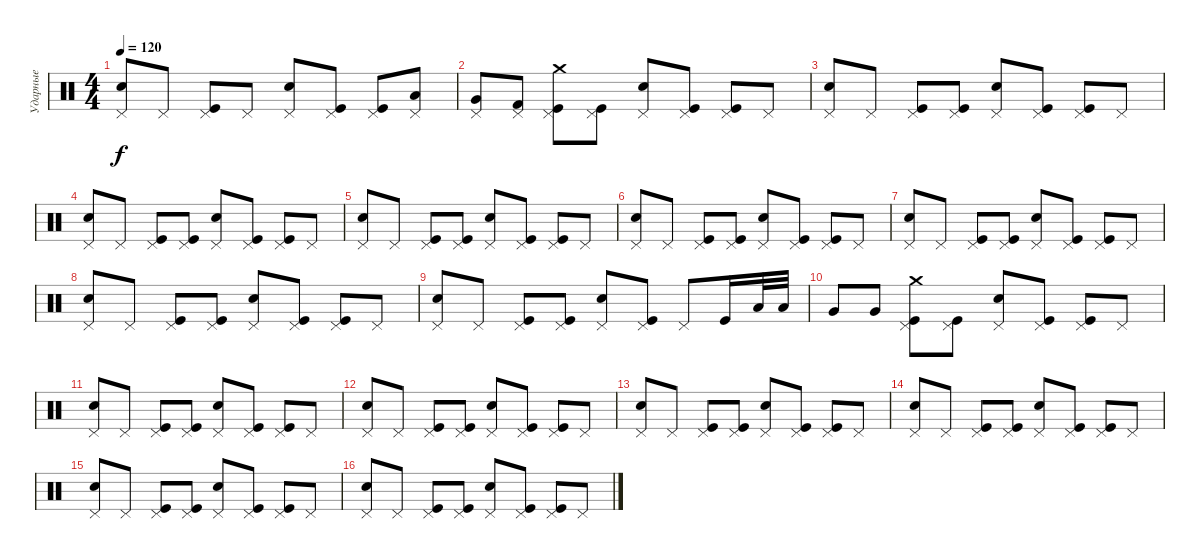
\track ("Ударные" "Ударные") {instrument percussion}
\staff {score}
\articulation defaults
\ts (4 4)
\tempo 120
\clef neutral
\ks c
("Electric Snare (hit)" "Pedal Hi-Hat (hit)").8{dy f} "Pedal Hi-Hat (hit)".8 ("Kick (hit)" "Pedal Hi-Hat (hit)").8 "Pedal Hi-Hat (hit)".8 ("Electric Snare (hit)" "Pedal Hi-Hat (hit)").8 ("Kick (hit)" "Pedal Hi-Hat (hit)").8 ("Kick (hit)" "Pedal Hi-Hat (hit)").8 ("Pedal Hi-Hat (hit)" "Low Tom (hit)").8 |
("Pedal Hi-Hat (hit)" "Very Low Tom (hit)").8 ("Pedal Hi-Hat (hit)" "Kick (hit) 2").8 ("Kick (hit)" "Pedal Hi-Hat (hit)" "Crash medium (hit)").8 ("Kick (hit)" "Pedal Hi-Hat (hit)").8 ("Electric Snare (hit)" "Pedal Hi-Hat (hit)").8 ("Kick (hit)" "Pedal Hi-Hat (hit)").8 ("Kick (hit)" "Pedal Hi-Hat (hit)").8 "Pedal Hi-Hat (hit)".8 |
("Electric Snare (hit)" "Pedal Hi-Hat (hit)").8 "Pedal Hi-Hat (hit)".8 ("Kick (hit)" "Pedal Hi-Hat (hit)").8 ("Kick (hit)" "Pedal Hi-Hat (hit)").8 ("Electric Snare (hit)" "Pedal Hi-Hat (hit)").8 ("Kick (hit)" "Pedal Hi-Hat (hit)").8 ("Kick (hit)" "Pedal Hi-Hat (hit)").8 "Pedal Hi-Hat (hit)".8 |
("Electric Snare (hit)" "Pedal Hi-Hat (hit)").8 "Pedal Hi-Hat (hit)".8 ("Kick (hit)" "Pedal Hi-Hat (hit)").8 ("Kick (hit)" "Pedal Hi-Hat (hit)").8 ("Electric Snare (hit)" "Pedal Hi-Hat (hit)").8 ("Kick (hit)" "Pedal Hi-Hat (hit)").8 ("Kick (hit)" "Pedal Hi-Hat (hit)").8 "Pedal Hi-Hat (hit)".8 |
("Electric Snare (hit)" "Pedal Hi-Hat (hit)").8 "Pedal Hi-Hat (hit)".8 ("Kick (hit)" "Pedal Hi-Hat (hit)").8 ("Kick (hit)" "Pedal Hi-Hat (hit)").8 ("Electric Snare (hit)" "Pedal Hi-Hat (hit)").8 ("Kick (hit)" "Pedal Hi-Hat (hit)").8 ("Kick (hit)" "Pedal Hi-Hat (hit)").8 "Pedal Hi-Hat (hit)".8 |
("Electric Snare (hit)" "Pedal Hi-Hat (hit)").8 "Pedal Hi-Hat (hit)".8 ("Kick (hit)" "Pedal Hi-Hat (hit)").8 ("Kick (hit)" "Pedal Hi-Hat (hit)").8 ("Electric Snare (hit)" "Pedal Hi-Hat (hit)").8 ("Kick (hit)" "Pedal Hi-Hat (hit)").8 ("Kick (hit)" "Pedal Hi-Hat (hit)").8 "Pedal Hi-Hat (hit)".8 |
("Electric Snare (hit)" "Pedal Hi-Hat (hit)").8 "Pedal Hi-Hat (hit)".8 ("Kick (hit)" "Pedal Hi-Hat (hit)").8 ("Kick (hit)" "Pedal Hi-Hat (hit)").8 ("Electric Snare (hit)" "Pedal Hi-Hat (hit)").8 ("Kick (hit)" "Pedal Hi-Hat (hit)").8 ("Kick (hit)" "Pedal Hi-Hat (hit)").8 "Pedal Hi-Hat (hit)".8 |
("Electric Snare (hit)" "Pedal Hi-Hat (hit)").8 "Pedal Hi-Hat (hit)".8 ("Kick (hit)" "Pedal Hi-Hat (hit)").8 ("Kick (hit)" "Pedal Hi-Hat (hit)").8 ("Electric Snare (hit)" "Pedal Hi-Hat (hit)").8 ("Kick (hit)" "Pedal Hi-Hat (hit)").8 ("Kick (hit)" "Pedal Hi-Hat (hit)").8 "Pedal Hi-Hat (hit)".8 |
("Electric Snare (hit)" "Pedal Hi-Hat (hit)").8 "Pedal Hi-Hat (hit)".8 ("Kick (hit)" "Pedal Hi-Hat (hit)").8 ("Kick (hit)" "Pedal Hi-Hat (hit)").8 ("Electric Snare (hit)" "Pedal Hi-Hat (hit)").8 ("Kick (hit)" "Pedal Hi-Hat (hit)").8 "Pedal Hi-Hat (hit)".8 "Kick (hit)".16 "Low Tom (hit)".32 "Low Tom (hit)".32 |
"Very Low Tom (hit)".8 "Very Low Tom (hit)".8 ("Kick (hit)" "Pedal Hi-Hat (hit)" "Crash medium (hit)").8 ("Kick (hit)" "Pedal Hi-Hat (hit)").8 ("Electric Snare (hit)" "Pedal Hi-Hat (hit)").8 ("Kick (hit)" "Pedal Hi-Hat (hit)").8 ("Kick (hit)" "Pedal Hi-Hat (hit)").8 "Pedal Hi-Hat (hit)".8 |
("Electric Snare (hit)" "Pedal Hi-Hat (hit)").8 "Pedal Hi-Hat (hit)".8 ("Kick (hit)" "Pedal Hi-Hat (hit)").8 ("Kick (hit)" "Pedal Hi-Hat (hit)").8 ("Electric Snare (hit)" "Pedal Hi-Hat (hit)").8 ("Kick (hit)" "Pedal Hi-Hat (hit)").8 ("Kick (hit)" "Pedal Hi-Hat (hit)").8 "Pedal Hi-Hat (hit)".8 |
("Electric Snare (hit)" "Pedal Hi-Hat (hit)").8 "Pedal Hi-Hat (hit)".8 ("Kick (hit)" "Pedal Hi-Hat (hit)").8 ("Kick (hit)" "Pedal Hi-Hat (hit)").8 ("Electric Snare (hit)" "Pedal Hi-Hat (hit)").8 ("Kick (hit)" "Pedal Hi-Hat (hit)").8 ("Kick (hit)" "Pedal Hi-Hat (hit)").8 "Pedal Hi-Hat (hit)".8 |
("Electric Snare (hit)" "Pedal Hi-Hat (hit)").8 "Pedal Hi-Hat (hit)".8 ("Kick (hit)" "Pedal Hi-Hat (hit)").8 ("Kick (hit)" "Pedal Hi-Hat (hit)").8 ("Electric Snare (hit)" "Pedal Hi-Hat (hit)").8 ("Kick (hit)" "Pedal Hi-Hat (hit)").8 ("Kick (hit)" "Pedal Hi-Hat (hit)").8 "Pedal Hi-Hat (hit)".8 |
("Electric Snare (hit)" "Pedal Hi-Hat (hit)").8 "Pedal Hi-Hat (hit)".8 ("Kick (hit)" "Pedal Hi-Hat (hit)").8 ("Kick (hit)" "Pedal Hi-Hat (hit)").8 ("Electric Snare (hit)" "Pedal Hi-Hat (hit)").8 ("Kick (hit)" "Pedal Hi-Hat (hit)").8 ("Kick (hit)" "Pedal Hi-Hat (hit)").8 "Pedal Hi-Hat (hit)".8 |
("Electric Snare (hit)" "Pedal Hi-Hat (hit)").8 "Pedal Hi-Hat (hit)".8 ("Kick (hit)" "Pedal Hi-Hat (hit)").8 ("Kick (hit)" "Pedal Hi-Hat (hit)").8 ("Electric Snare (hit)" "Pedal Hi-Hat (hit)").8 ("Kick (hit)" "Pedal Hi-Hat (hit)").8 ("Kick (hit)" "Pedal Hi-Hat (hit)").8 "Pedal Hi-Hat (hit)".8 |
("Electric Snare (hit)" "Pedal Hi-Hat (hit)").8 "Pedal Hi-Hat (hit)".8 ("Kick (hit)" "Pedal Hi-Hat (hit)").8 ("Kick (hit)" "Pedal Hi-Hat (hit)").8 ("Electric Snare (hit)" "Pedal Hi-Hat (hit)").8 ("Kick (hit)" "Pedal Hi-Hat (hit)").8 ("Kick (hit)" "Pedal Hi-Hat (hit)").8 "Pedal Hi-Hat (hit)".8
